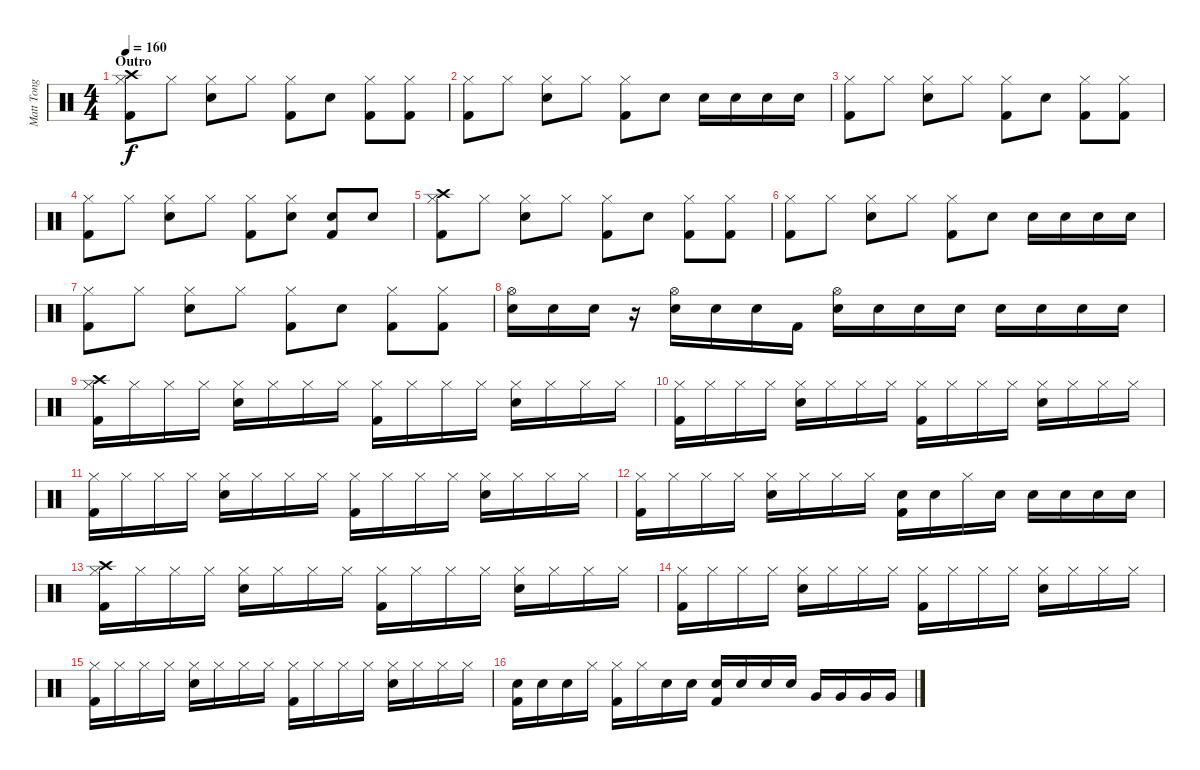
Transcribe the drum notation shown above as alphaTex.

\track ("Matt Tong" "Matt Tong") {instrument percussion}
\staff {score}
\articulation defaults
\ts (4 4)
\section ("" "Outro")
\tempo 160
\clef neutral
\ks c
("Crash high (hit)" "Hi-Hat (closed)" "Kick (hit) 2").8{dy f} "Hi-Hat (closed)".8 ("Hi-Hat (closed)" "Electric Snare (hit)").8 "Hi-Hat (closed)".8 ("Hi-Hat (closed)" "Kick (hit) 2").8 "Electric Snare (hit)".8 ("Hi-Hat (closed)" "Kick (hit) 2").8 ("Hi-Hat (closed)" "Kick (hit) 2").8 |
("Hi-Hat (closed)" "Kick (hit) 2").8 "Hi-Hat (closed)".8 ("Hi-Hat (closed)" "Electric Snare (hit)").8 "Hi-Hat (closed)".8 ("Hi-Hat (closed)" "Kick (hit) 2").8 "Electric Snare (hit)".8 "Electric Snare (hit)".16 "Electric Snare (hit)".16 "Electric Snare (hit)".16 "Electric Snare (hit)".16 |
("Hi-Hat (closed)" "Kick (hit) 2").8 "Hi-Hat (closed)".8 ("Hi-Hat (closed)" "Electric Snare (hit)").8 "Hi-Hat (closed)".8 ("Hi-Hat (closed)" "Kick (hit) 2").8 "Electric Snare (hit)".8 ("Hi-Hat (closed)" "Kick (hit) 2").8 ("Hi-Hat (closed)" "Kick (hit) 2").8 |
("Hi-Hat (closed)" "Kick (hit) 2").8 "Hi-Hat (closed)".8 ("Hi-Hat (closed)" "Electric Snare (hit)").8 "Hi-Hat (closed)".8 ("Hi-Hat (closed)" "Kick (hit) 2").8 ("Hi-Hat (closed)" "Electric Snare (hit)").8 ("Electric Snare (hit)" "Kick (hit) 2").8 "Electric Snare (hit)".8 |
("Crash high (hit)" "Hi-Hat (closed)" "Kick (hit) 2").8 "Hi-Hat (closed)".8 ("Hi-Hat (closed)" "Electric Snare (hit)").8 "Hi-Hat (closed)".8 ("Hi-Hat (closed)" "Kick (hit) 2").8 "Electric Snare (hit)".8 ("Hi-Hat (closed)" "Kick (hit) 2").8 ("Hi-Hat (closed)" "Kick (hit) 2").8 |
("Hi-Hat (closed)" "Kick (hit) 2").8 "Hi-Hat (closed)".8 ("Hi-Hat (closed)" "Electric Snare (hit)").8 "Hi-Hat (closed)".8 ("Hi-Hat (closed)" "Kick (hit) 2").8 "Electric Snare (hit)".8 "Electric Snare (hit)".16 "Electric Snare (hit)".16 "Electric Snare (hit)".16 "Electric Snare (hit)".16 |
("Hi-Hat (closed)" "Kick (hit) 2").8 "Hi-Hat (closed)".8 ("Hi-Hat (closed)" "Electric Snare (hit)").8 "Hi-Hat (closed)".8 ("Hi-Hat (closed)" "Kick (hit) 2").8 "Electric Snare (hit)".8 ("Hi-Hat (closed)" "Kick (hit) 2").8 ("Hi-Hat (closed)" "Kick (hit) 2").8 |
("Hi-Hat (open)" "Electric Snare (hit)").16 "Electric Snare (hit)".16 "Electric Snare (hit)".16 r.16 ("Hi-Hat (open)" "Electric Snare (hit)").16 "Electric Snare (hit)".16 "Electric Snare (hit)".16 "Kick (hit) 2".16 ("Hi-Hat (open)" "Electric Snare (hit)").16 "Electric Snare (hit)".16 "Electric Snare (hit)".16 "Electric Snare (hit)".16 "Electric Snare (hit)".16 "Electric Snare (hit)".16 "Electric Snare (hit)".16 "Electric Snare (hit)".16 |
("Crash high (hit)" "Hi-Hat (closed)" "Kick (hit) 2").16 "Hi-Hat (closed)".16 "Hi-Hat (closed)".16 "Hi-Hat (closed)".16 ("Hi-Hat (closed)" "Electric Snare (hit)").16 "Hi-Hat (closed)".16 "Hi-Hat (closed)".16 "Hi-Hat (closed)".16 ("Hi-Hat (closed)" "Kick (hit) 2").16 "Hi-Hat (closed)".16 "Hi-Hat (closed)".16 "Hi-Hat (closed)".16 ("Hi-Hat (closed)" "Electric Snare (hit)").16 "Hi-Hat (closed)".16 "Hi-Hat (closed)".16 "Hi-Hat (closed)".16 |
("Hi-Hat (closed)" "Kick (hit) 2").16 "Hi-Hat (closed)".16 "Hi-Hat (closed)".16 "Hi-Hat (closed)".16 ("Hi-Hat (closed)" "Electric Snare (hit)").16 "Hi-Hat (closed)".16 "Hi-Hat (closed)".16 "Hi-Hat (closed)".16 ("Hi-Hat (closed)" "Kick (hit) 2").16 "Hi-Hat (closed)".16 "Hi-Hat (closed)".16 "Hi-Hat (closed)".16 ("Hi-Hat (closed)" "Electric Snare (hit)").16 "Hi-Hat (closed)".16 "Hi-Hat (closed)".16 "Hi-Hat (closed)".16 |
("Hi-Hat (closed)" "Kick (hit) 2").16 "Hi-Hat (closed)".16 "Hi-Hat (closed)".16 "Hi-Hat (closed)".16 ("Hi-Hat (closed)" "Electric Snare (hit)").16 "Hi-Hat (closed)".16 "Hi-Hat (closed)".16 "Hi-Hat (closed)".16 ("Hi-Hat (closed)" "Kick (hit) 2").16 "Hi-Hat (closed)".16 "Hi-Hat (closed)".16 "Hi-Hat (closed)".16 ("Hi-Hat (closed)" "Electric Snare (hit)").16 "Hi-Hat (closed)".16 "Hi-Hat (closed)".16 "Hi-Hat (closed)".16 |
("Hi-Hat (closed)" "Kick (hit) 2").16 "Hi-Hat (closed)".16 "Hi-Hat (closed)".16 "Hi-Hat (closed)".16 ("Hi-Hat (closed)" "Electric Snare (hit)").16 "Hi-Hat (closed)".16 "Hi-Hat (closed)".16 "Hi-Hat (closed)".16 ("Electric Snare (hit)" "Kick (hit) 2").16 "Electric Snare (hit)".16 "Hi-Hat (closed)".16 "Electric Snare (hit)".16 "Electric Snare (hit)".16 "Electric Snare (hit)".16 "Electric Snare (hit)".16 "Electric Snare (hit)".16 |
("Crash high (hit)" "Hi-Hat (closed)" "Kick (hit) 2").16 "Hi-Hat (closed)".16 "Hi-Hat (closed)".16 "Hi-Hat (closed)".16 ("Hi-Hat (closed)" "Electric Snare (hit)").16 "Hi-Hat (closed)".16 "Hi-Hat (closed)".16 "Hi-Hat (closed)".16 ("Hi-Hat (closed)" "Kick (hit) 2").16 "Hi-Hat (closed)".16 "Hi-Hat (closed)".16 "Hi-Hat (closed)".16 ("Hi-Hat (closed)" "Electric Snare (hit)").16 "Hi-Hat (closed)".16 "Hi-Hat (closed)".16 "Hi-Hat (closed)".16 |
("Hi-Hat (closed)" "Kick (hit) 2").16 "Hi-Hat (closed)".16 "Hi-Hat (closed)".16 "Hi-Hat (closed)".16 ("Hi-Hat (closed)" "Electric Snare (hit)").16 "Hi-Hat (closed)".16 "Hi-Hat (closed)".16 "Hi-Hat (closed)".16 ("Hi-Hat (closed)" "Kick (hit) 2").16 "Hi-Hat (closed)".16 "Hi-Hat (closed)".16 "Hi-Hat (closed)".16 ("Hi-Hat (closed)" "Electric Snare (hit)").16 "Hi-Hat (closed)".16 "Hi-Hat (closed)".16 "Hi-Hat (closed)".16 |
("Hi-Hat (closed)" "Kick (hit) 2").16 "Hi-Hat (closed)".16 "Hi-Hat (closed)".16 "Hi-Hat (closed)".16 ("Hi-Hat (closed)" "Electric Snare (hit)").16 "Hi-Hat (closed)".16 "Hi-Hat (closed)".16 "Hi-Hat (closed)".16 ("Hi-Hat (closed)" "Kick (hit) 2").16 "Hi-Hat (closed)".16 "Hi-Hat (closed)".16 "Hi-Hat (closed)".16 ("Hi-Hat (closed)" "Electric Snare (hit)").16 "Hi-Hat (closed)".16 "Hi-Hat (closed)".16 "Hi-Hat (closed)".16 |
("Electric Snare (hit)" "Kick (hit) 2").16 "Electric Snare (hit)".16 "Electric Snare (hit)".16 "Hi-Hat (closed)".16 ("Hi-Hat (closed)" "Kick (hit) 2").16 "Hi-Hat (closed)".16 "Electric Snare (hit)".16 "Electric Snare (hit)".16 ("Electric Snare (hit)" "Kick (hit) 2").16 "Electric Snare (hit)".16 "Electric Snare (hit)".16 "Electric Snare (hit)".16 "Very Low Tom (hit)".16 "Very Low Tom (hit)".16 "Very Low Tom (hit)".16 "Very Low Tom (hit)".16
